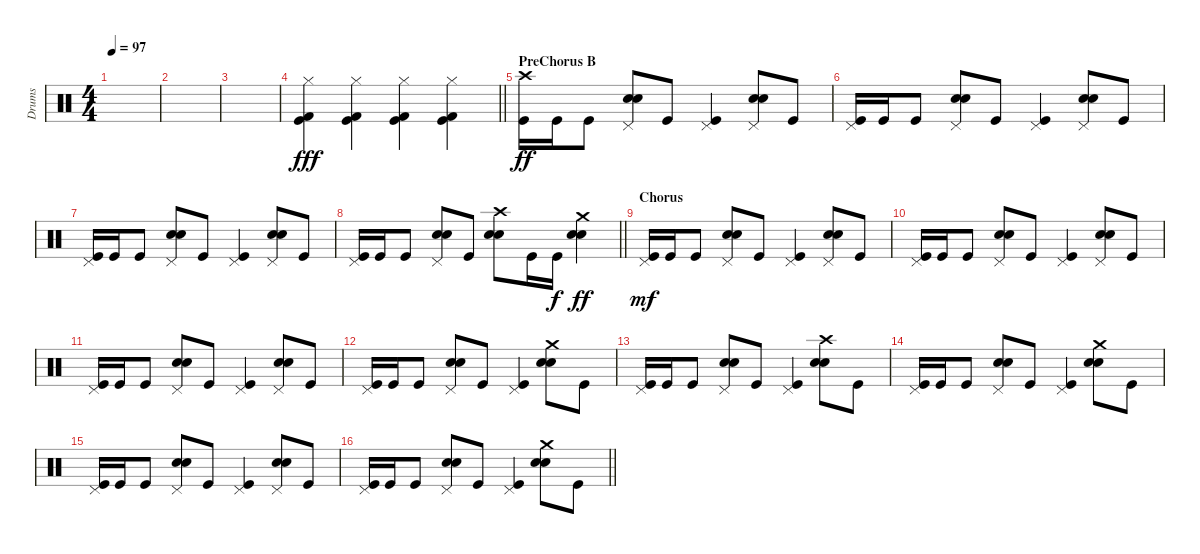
\track ("Drums" "Drums") {instrument percussion}
\staff {score}
\articulation defaults
\ts (4 4)
\tempo 97
\clef neutral
\ks c
|
|
|
\barLineRight lightlight
("Hi-Hat (closed)" "Kick (hit)" "Kick (hit) 2").4{dy fff} ("Hi-Hat (closed)" "Kick (hit)" "Kick (hit) 2").4 ("Hi-Hat (closed)" "Kick (hit)" "Kick (hit) 2").4 ("Hi-Hat (closed)" "Kick (hit)" "Kick (hit) 2").4 |
\section ("" "PreChorus B")
("Crash high (hit)" "Kick (hit)").16{dy ff} "Kick (hit)".16 "Kick (hit)".8 ("Pedal Hi-Hat (hit)" "Electric Snare (hit)" "Snare (hit) 2").8 "Kick (hit)".8 ("Pedal Hi-Hat (hit)" "Kick (hit)").4 ("Pedal Hi-Hat (hit)" "Electric Snare (hit)" "Snare (hit) 2").8 "Kick (hit)".8 |
("Pedal Hi-Hat (hit)" "Kick (hit)").16 "Kick (hit)".16 "Kick (hit)".8 ("Pedal Hi-Hat (hit)" "Electric Snare (hit)" "Snare (hit) 2").8 "Kick (hit)".8 ("Pedal Hi-Hat (hit)" "Kick (hit)").4 ("Pedal Hi-Hat (hit)" "Electric Snare (hit)" "Snare (hit) 2").8 "Kick (hit)".8 |
("Pedal Hi-Hat (hit)" "Kick (hit)").16 "Kick (hit)".16 "Kick (hit)".8 ("Pedal Hi-Hat (hit)" "Electric Snare (hit)" "Snare (hit) 2").8 "Kick (hit)".8 ("Pedal Hi-Hat (hit)" "Kick (hit)").4 ("Pedal Hi-Hat (hit)" "Electric Snare (hit)" "Snare (hit) 2").8 "Kick (hit)".8 |
\barLineRight lightlight
("Pedal Hi-Hat (hit)" "Kick (hit)").16 "Kick (hit)".16 "Kick (hit)".8 ("Pedal Hi-Hat (hit)" "Electric Snare (hit)" "Snare (hit) 2").8 "Kick (hit)".8 ("Crash high (hit)" "Electric Snare (hit)" "Snare (hit) 2").8 "Kick (hit)".16 "Kick (hit)".16{dy f} ("Crash medium (hit)" "Electric Snare (hit)" "Snare (hit) 2").4{dy ff} |
\section ("" "Chorus")
("Pedal Hi-Hat (hit)" "Kick (hit)").16{dy mf} "Kick (hit)".16 "Kick (hit)".8 ("Pedal Hi-Hat (hit)" "Electric Snare (hit)" "Snare (hit) 2").8 "Kick (hit)".8 ("Pedal Hi-Hat (hit)" "Kick (hit)").4 ("Pedal Hi-Hat (hit)" "Electric Snare (hit)" "Snare (hit) 2").8 "Kick (hit)".8 |
("Pedal Hi-Hat (hit)" "Kick (hit)").16 "Kick (hit)".16 "Kick (hit)".8 ("Pedal Hi-Hat (hit)" "Electric Snare (hit)" "Snare (hit) 2").8 "Kick (hit)".8 ("Pedal Hi-Hat (hit)" "Kick (hit)").4 ("Pedal Hi-Hat (hit)" "Electric Snare (hit)" "Snare (hit) 2").8 "Kick (hit)".8 |
("Pedal Hi-Hat (hit)" "Kick (hit)").16 "Kick (hit)".16 "Kick (hit)".8 ("Pedal Hi-Hat (hit)" "Electric Snare (hit)" "Snare (hit) 2").8 "Kick (hit)".8 ("Pedal Hi-Hat (hit)" "Kick (hit)").4 ("Pedal Hi-Hat (hit)" "Electric Snare (hit)" "Snare (hit) 2").8 "Kick (hit)".8 |
("Pedal Hi-Hat (hit)" "Kick (hit)").16 "Kick (hit)".16 "Kick (hit)".8 ("Pedal Hi-Hat (hit)" "Electric Snare (hit)" "Snare (hit) 2").8 "Kick (hit)".8 ("Pedal Hi-Hat (hit)" "Kick (hit)").4 ("Crash medium (hit)" "Electric Snare (hit)" "Snare (hit) 2").8 "Kick (hit)".8 |
("Pedal Hi-Hat (hit)" "Kick (hit)").16 "Kick (hit)".16 "Kick (hit)".8 ("Pedal Hi-Hat (hit)" "Electric Snare (hit)" "Snare (hit) 2").8 "Kick (hit)".8 ("Pedal Hi-Hat (hit)" "Kick (hit)").4 ("Crash high (hit)" "Electric Snare (hit)" "Snare (hit) 2").8 "Kick (hit)".8 |
("Pedal Hi-Hat (hit)" "Kick (hit)").16 "Kick (hit)".16 "Kick (hit)".8 ("Pedal Hi-Hat (hit)" "Electric Snare (hit)" "Snare (hit) 2").8 "Kick (hit)".8 ("Pedal Hi-Hat (hit)" "Kick (hit)").4 ("Crash medium (hit)" "Electric Snare (hit)" "Snare (hit) 2").8 "Kick (hit)".8 |
("Pedal Hi-Hat (hit)" "Kick (hit)").16 "Kick (hit)".16 "Kick (hit)".8 ("Pedal Hi-Hat (hit)" "Electric Snare (hit)" "Snare (hit) 2").8 "Kick (hit)".8 ("Pedal Hi-Hat (hit)" "Kick (hit)").4 ("Pedal Hi-Hat (hit)" "Electric Snare (hit)" "Snare (hit) 2").8 "Kick (hit)".8 |
\barLineRight lightlight
("Pedal Hi-Hat (hit)" "Kick (hit)").16 "Kick (hit)".16 "Kick (hit)".8 ("Pedal Hi-Hat (hit)" "Electric Snare (hit)" "Snare (hit) 2").8 "Kick (hit)".8 ("Pedal Hi-Hat (hit)" "Kick (hit)").4 ("Crash medium (hit)" "Electric Snare (hit)" "Snare (hit) 2").8 "Kick (hit)".8
